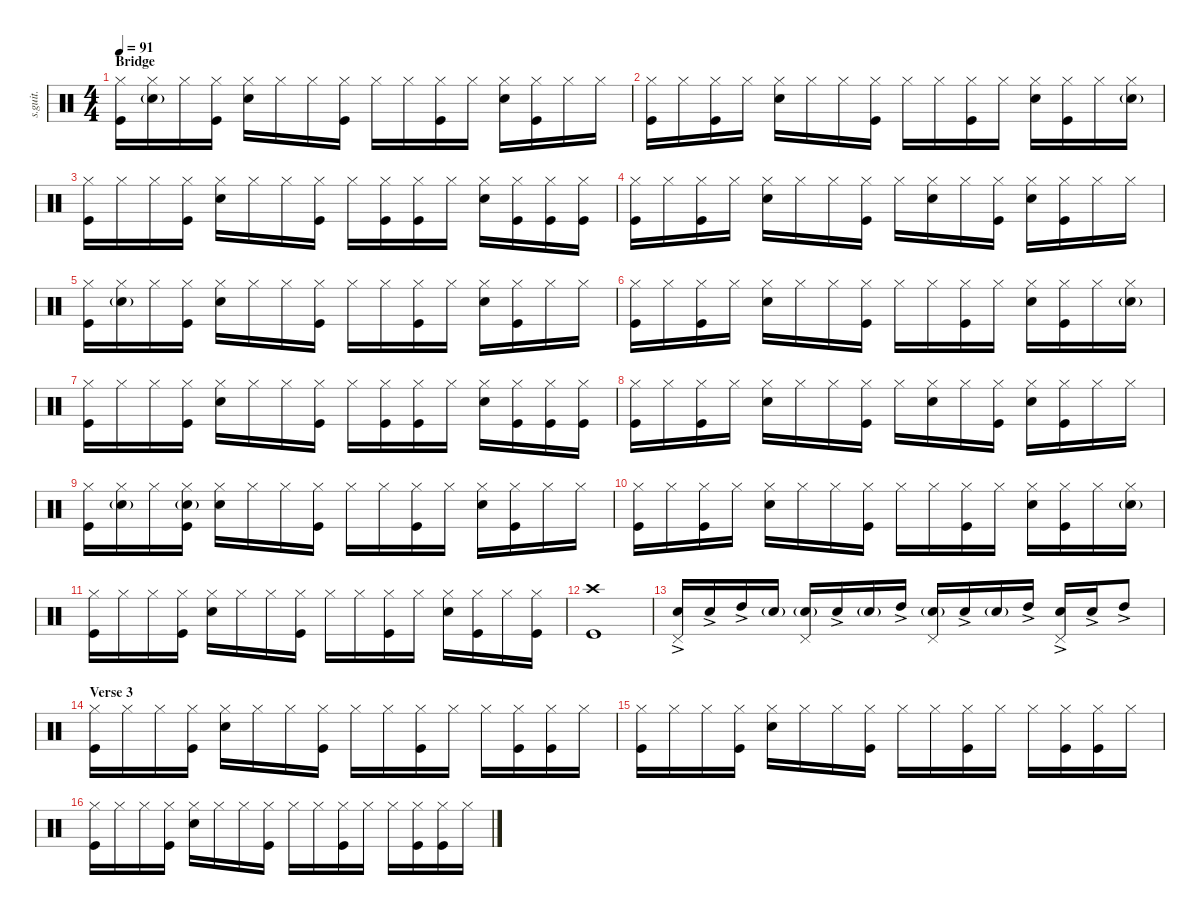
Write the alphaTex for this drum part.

\defaultSystemsLayout 4
\hideDynamics
\bracketExtendMode nobrackets
\track ("Chad" "s.guit.") {instrument percussion}
\staff {score}
\articulation defaults
\ts (4 4)
\section ("" "Bridge")
\tempo 91
\clef neutral
\ks c
("Hi-Hat (closed)" "Kick (hit)").16{dy f} ("Hi-Hat (closed)" "Snare (hit) 2"{g}).16 "Hi-Hat (closed)".16 ("Hi-Hat (closed)" "Kick (hit)").16 ("Hi-Hat (closed)" "Snare (hit) 2").16 "Hi-Hat (closed)".16 "Hi-Hat (closed)".16 ("Hi-Hat (closed)" "Kick (hit)").16 "Hi-Hat (closed)".16 "Hi-Hat (closed)".16 ("Hi-Hat (closed)" "Kick (hit)").16 "Hi-Hat (closed)".16 ("Hi-Hat (closed)" "Snare (hit) 2").16 ("Hi-Hat (closed)" "Kick (hit)").16 "Hi-Hat (closed)".16 "Hi-Hat (closed)".16 |
("Hi-Hat (closed)" "Kick (hit)").16 "Hi-Hat (closed)".16 ("Hi-Hat (closed)" "Kick (hit)").16 "Hi-Hat (closed)".16 ("Hi-Hat (closed)" "Snare (hit) 2").16 "Hi-Hat (closed)".16 "Hi-Hat (closed)".16 ("Hi-Hat (closed)" "Kick (hit)").16 "Hi-Hat (closed)".16 "Hi-Hat (closed)".16 ("Hi-Hat (closed)" "Kick (hit)").16 "Hi-Hat (closed)".16 ("Hi-Hat (closed)" "Snare (hit) 2").16 ("Hi-Hat (closed)" "Kick (hit)").16 "Hi-Hat (closed)".16 ("Hi-Hat (closed)" "Snare (hit) 2"{g}).16 |
("Hi-Hat (closed)" "Kick (hit)").16 "Hi-Hat (closed)".16 "Hi-Hat (closed)".16 ("Hi-Hat (closed)" "Kick (hit)").16 ("Hi-Hat (closed)" "Snare (hit) 2").16 "Hi-Hat (closed)".16 "Hi-Hat (closed)".16 ("Hi-Hat (closed)" "Kick (hit)").16 "Hi-Hat (closed)".16 ("Hi-Hat (closed)" "Kick (hit)").16 ("Hi-Hat (closed)" "Kick (hit)").16 "Hi-Hat (closed)".16 ("Hi-Hat (closed)" "Snare (hit) 2").16 ("Hi-Hat (closed)" "Kick (hit)").16 ("Hi-Hat (closed)" "Kick (hit)").16 ("Hi-Hat (closed)" "Kick (hit)").16 |
("Hi-Hat (closed)" "Kick (hit)").16 "Hi-Hat (closed)".16 ("Hi-Hat (closed)" "Kick (hit)").16 "Hi-Hat (closed)".16 ("Hi-Hat (closed)" "Snare (hit) 2").16 "Hi-Hat (closed)".16 "Hi-Hat (closed)".16 ("Hi-Hat (closed)" "Kick (hit)").16 "Hi-Hat (closed)".16 ("Hi-Hat (closed)" "Snare (hit) 2").16 "Hi-Hat (closed)".16 ("Hi-Hat (closed)" "Kick (hit)").16 ("Hi-Hat (closed)" "Snare (hit) 2").16 ("Hi-Hat (closed)" "Kick (hit)").16 "Hi-Hat (closed)".16 "Hi-Hat (closed)".16 |
("Hi-Hat (closed)" "Kick (hit)").16 ("Hi-Hat (closed)" "Snare (hit) 2"{g}).16 "Hi-Hat (closed)".16 ("Hi-Hat (closed)" "Kick (hit)").16 ("Hi-Hat (closed)" "Snare (hit) 2").16 "Hi-Hat (closed)".16 "Hi-Hat (closed)".16 ("Hi-Hat (closed)" "Kick (hit)").16 "Hi-Hat (closed)".16 "Hi-Hat (closed)".16 ("Hi-Hat (closed)" "Kick (hit)").16 "Hi-Hat (closed)".16 ("Hi-Hat (closed)" "Snare (hit) 2").16 ("Hi-Hat (closed)" "Kick (hit)").16 "Hi-Hat (closed)".16 "Hi-Hat (closed)".16 |
("Hi-Hat (closed)" "Kick (hit)").16 "Hi-Hat (closed)".16 ("Hi-Hat (closed)" "Kick (hit)").16 "Hi-Hat (closed)".16 ("Hi-Hat (closed)" "Snare (hit) 2").16 "Hi-Hat (closed)".16 "Hi-Hat (closed)".16 ("Hi-Hat (closed)" "Kick (hit)").16 "Hi-Hat (closed)".16 "Hi-Hat (closed)".16 ("Hi-Hat (closed)" "Kick (hit)").16 "Hi-Hat (closed)".16 ("Hi-Hat (closed)" "Snare (hit) 2").16 ("Hi-Hat (closed)" "Kick (hit)").16 "Hi-Hat (closed)".16 ("Hi-Hat (closed)" "Snare (hit) 2"{g}).16 |
("Hi-Hat (closed)" "Kick (hit)").16 "Hi-Hat (closed)".16 "Hi-Hat (closed)".16 ("Hi-Hat (closed)" "Kick (hit)").16 ("Hi-Hat (closed)" "Snare (hit) 2").16 "Hi-Hat (closed)".16 "Hi-Hat (closed)".16 ("Hi-Hat (closed)" "Kick (hit)").16 "Hi-Hat (closed)".16 ("Hi-Hat (closed)" "Kick (hit)").16 ("Hi-Hat (closed)" "Kick (hit)").16 "Hi-Hat (closed)".16 ("Hi-Hat (closed)" "Snare (hit) 2").16 ("Hi-Hat (closed)" "Kick (hit)").16 ("Hi-Hat (closed)" "Kick (hit)").16 ("Hi-Hat (closed)" "Kick (hit)").16 |
("Hi-Hat (closed)" "Kick (hit)").16 "Hi-Hat (closed)".16 ("Hi-Hat (closed)" "Kick (hit)").16 "Hi-Hat (closed)".16 ("Hi-Hat (closed)" "Snare (hit) 2").16 "Hi-Hat (closed)".16 "Hi-Hat (closed)".16 ("Hi-Hat (closed)" "Kick (hit)").16 "Hi-Hat (closed)".16 ("Hi-Hat (closed)" "Snare (hit) 2").16 "Hi-Hat (closed)".16 ("Hi-Hat (closed)" "Kick (hit)").16 ("Hi-Hat (closed)" "Snare (hit) 2").16 ("Hi-Hat (closed)" "Kick (hit)").16 "Hi-Hat (closed)".16 "Hi-Hat (closed)".16 |
("Hi-Hat (closed)" "Kick (hit)").16 ("Hi-Hat (closed)" "Snare (hit) 2"{g}).16 "Hi-Hat (closed)".16 ("Hi-Hat (closed)" "Snare (hit) 2"{g} "Kick (hit)").16 ("Hi-Hat (closed)" "Snare (hit) 2").16 "Hi-Hat (closed)".16 "Hi-Hat (closed)".16 ("Hi-Hat (closed)" "Kick (hit)").16 "Hi-Hat (closed)".16 "Hi-Hat (closed)".16 ("Hi-Hat (closed)" "Kick (hit)").16 "Hi-Hat (closed)".16 ("Hi-Hat (closed)" "Snare (hit) 2").16 ("Hi-Hat (closed)" "Kick (hit)").16 "Hi-Hat (closed)".16 "Hi-Hat (closed)".16 |
("Hi-Hat (closed)" "Kick (hit)").16 "Hi-Hat (closed)".16 ("Hi-Hat (closed)" "Kick (hit)").16 "Hi-Hat (closed)".16 ("Hi-Hat (closed)" "Snare (hit) 2").16 "Hi-Hat (closed)".16 "Hi-Hat (closed)".16 ("Hi-Hat (closed)" "Kick (hit)").16 "Hi-Hat (closed)".16 "Hi-Hat (closed)".16 ("Hi-Hat (closed)" "Kick (hit)").16 "Hi-Hat (closed)".16 ("Hi-Hat (closed)" "Snare (hit) 2").16 ("Hi-Hat (closed)" "Kick (hit)").16 "Hi-Hat (closed)".16 ("Hi-Hat (closed)" "Snare (hit) 2"{g}).16 |
("Hi-Hat (closed)" "Kick (hit)").16 "Hi-Hat (closed)".16 "Hi-Hat (closed)".16 ("Hi-Hat (closed)" "Kick (hit)").16 ("Hi-Hat (closed)" "Snare (hit) 2").16 "Hi-Hat (closed)".16 "Hi-Hat (closed)".16 ("Hi-Hat (closed)" "Kick (hit)").16 "Hi-Hat (closed)".16 "Hi-Hat (closed)".16 ("Hi-Hat (closed)" "Kick (hit)").16 "Hi-Hat (closed)".16 ("Hi-Hat (closed)" "Snare (hit) 2").16 ("Hi-Hat (closed)" "Kick (hit)").16 "Hi-Hat (closed)".16 ("Hi-Hat (closed)" "Kick (hit)").16 |
("Crash high (hit)" "Kick (hit)").1 |
("Snare (hit) 2"{ac} "Pedal Hi-Hat (hit)").16 "Snare (hit) 2"{ac}.16 "High Tom (hit)"{ac}.16 "Snare (hit) 2"{g}.16{dy ppp} ("Snare (hit) 2"{g} "Pedal Hi-Hat (hit)").16 "Snare (hit) 2"{ac}.16{dy f} "Snare (hit) 2"{g}.16{dy ppp} "High Tom (hit)"{ac}.16{dy f} ("Snare (hit) 2"{g} "Pedal Hi-Hat (hit)").16{dy ppp} "Snare (hit) 2"{ac}.16{dy f} "Snare (hit) 2"{g}.16{dy ppp} "High Tom (hit)"{ac}.16{dy f} ("Snare (hit) 2"{ac} "Pedal Hi-Hat (hit)").16 "Snare (hit) 2"{ac}.16 "High Tom (hit)"{ac}.8 |
\section ("" "Verse 3")
("Hi-Hat (closed)" "Kick (hit)").16 "Hi-Hat (closed)".16 "Hi-Hat (closed)".16 ("Hi-Hat (closed)" "Kick (hit)").16 ("Hi-Hat (closed)" "Snare (hit) 2").16 "Hi-Hat (closed)".16 "Hi-Hat (closed)".16 ("Hi-Hat (closed)" "Kick (hit)").16 "Hi-Hat (closed)".16 "Hi-Hat (closed)".16 ("Hi-Hat (closed)" "Kick (hit)").16 "Hi-Hat (closed)".16 "Hi-Hat (closed)".16 ("Hi-Hat (closed)" "Kick (hit)").16 ("Hi-Hat (closed)" "Kick (hit)").16 "Hi-Hat (closed)".16 |
("Hi-Hat (closed)" "Kick (hit)").16 "Hi-Hat (closed)".16 "Hi-Hat (closed)".16 ("Hi-Hat (closed)" "Kick (hit)").16 ("Hi-Hat (closed)" "Snare (hit) 2").16 "Hi-Hat (closed)".16 "Hi-Hat (closed)".16 ("Hi-Hat (closed)" "Kick (hit)").16 "Hi-Hat (closed)".16 "Hi-Hat (closed)".16 ("Hi-Hat (closed)" "Kick (hit)").16 "Hi-Hat (closed)".16 "Hi-Hat (closed)".16 ("Hi-Hat (closed)" "Kick (hit)").16 ("Hi-Hat (closed)" "Kick (hit)").16 "Hi-Hat (closed)".16 |
("Hi-Hat (closed)" "Kick (hit)").16 "Hi-Hat (closed)".16 "Hi-Hat (closed)".16 ("Hi-Hat (closed)" "Kick (hit)").16 ("Hi-Hat (closed)" "Snare (hit) 2").16 "Hi-Hat (closed)".16 "Hi-Hat (closed)".16 ("Hi-Hat (closed)" "Kick (hit)").16 "Hi-Hat (closed)".16 "Hi-Hat (closed)".16 ("Hi-Hat (closed)" "Kick (hit)").16 "Hi-Hat (closed)".16 "Hi-Hat (closed)".16 ("Hi-Hat (closed)" "Kick (hit)").16 ("Hi-Hat (closed)" "Kick (hit)").16 "Hi-Hat (closed)".16
